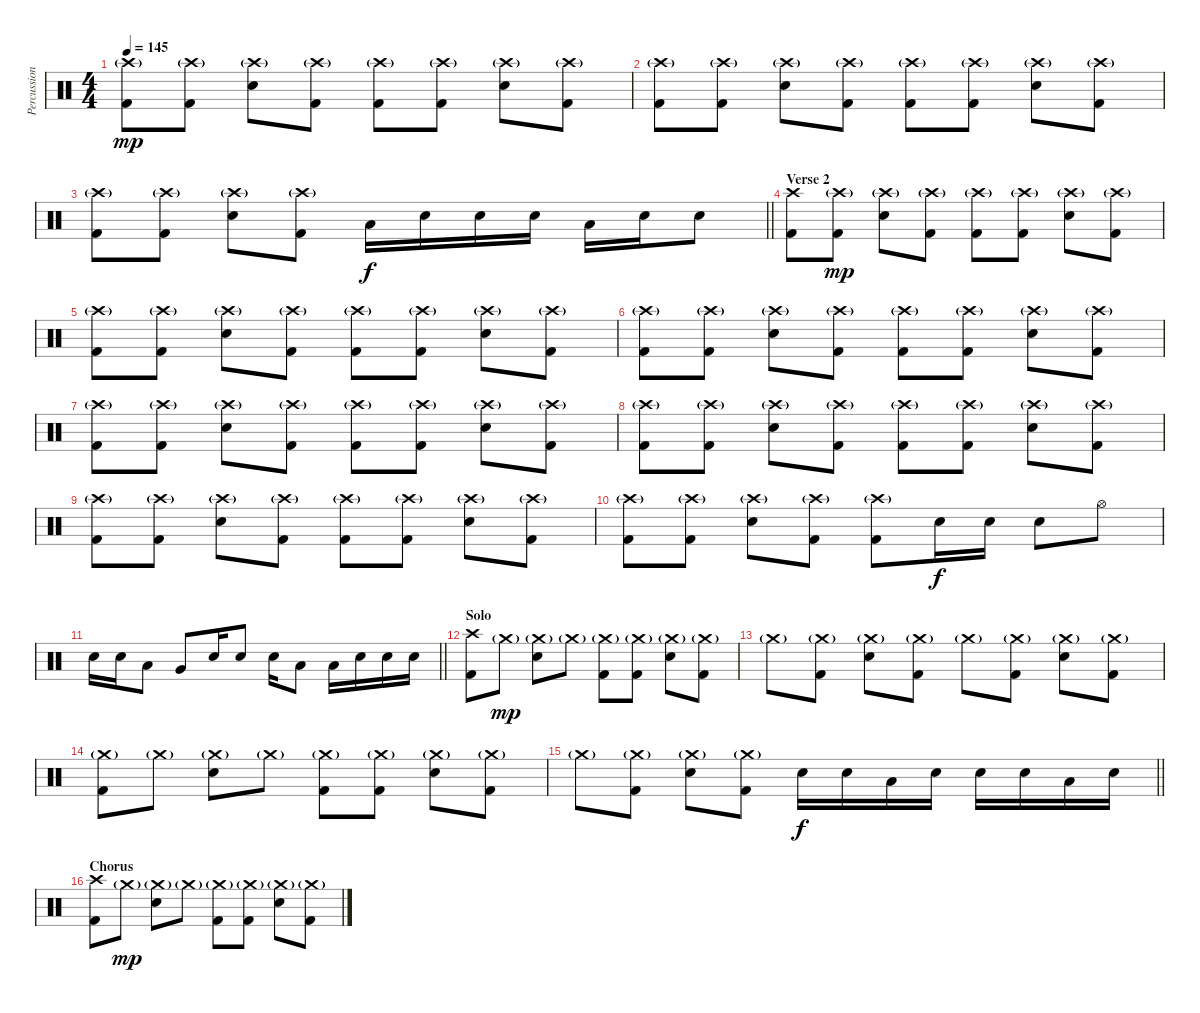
\track ("Percussion" "Percussion") {instrument percussion}
\staff {score}
\articulation defaults
\ts (4 4)
\tempo 145
\clef neutral
\ks c
("Crash high (hit)"{g} "Kick (hit) 2").8{dy mp} ("Crash high (hit)"{g} "Kick (hit) 2").8 ("Crash high (hit)"{g} "Snare (hit) 2").8 ("Crash high (hit)"{g} "Kick (hit) 2").8 ("Crash high (hit)"{g} "Kick (hit) 2").8 ("Crash high (hit)"{g} "Kick (hit) 2").8 ("Crash high (hit)"{g} "Snare (hit) 2").8 ("Crash high (hit)"{g} "Kick (hit) 2").8 |
("Crash high (hit)"{g} "Kick (hit) 2").8 ("Crash high (hit)"{g} "Kick (hit) 2").8 ("Crash high (hit)"{g} "Snare (hit) 2").8 ("Crash high (hit)"{g} "Kick (hit) 2").8 ("Crash high (hit)"{g} "Kick (hit) 2").8 ("Crash high (hit)"{g} "Kick (hit) 2").8 ("Crash high (hit)"{g} "Snare (hit) 2").8 ("Crash high (hit)"{g} "Kick (hit) 2").8 |
\barLineRight lightlight
("Crash high (hit)"{g} "Kick (hit) 2").8 ("Crash high (hit)"{g} "Kick (hit) 2").8 ("Crash high (hit)"{g} "Snare (hit) 2").8 ("Crash high (hit)"{g} "Kick (hit) 2").8 "Low Tom (hit)".16{dy f} "Snare (hit) 2".16 "Snare (hit) 2".16 "Snare (hit) 2".16 "Low Tom (hit)".16 "Snare (hit) 2".16 "Snare (hit) 2".8 |
\section ("" "Verse 2")
("Crash high (hit)" "Kick (hit) 2").8 ("Crash high (hit)"{g} "Kick (hit) 2").8{dy mp} ("Crash high (hit)"{g} "Snare (hit) 2").8 ("Crash high (hit)"{g} "Kick (hit) 2").8 ("Crash high (hit)"{g} "Kick (hit) 2").8 ("Crash high (hit)"{g} "Kick (hit) 2").8 ("Crash high (hit)"{g} "Snare (hit) 2").8 ("Crash high (hit)"{g} "Kick (hit) 2").8 |
("Crash high (hit)"{g} "Kick (hit) 2").8 ("Crash high (hit)"{g} "Kick (hit) 2").8 ("Crash high (hit)"{g} "Snare (hit) 2").8 ("Crash high (hit)"{g} "Kick (hit) 2").8 ("Crash high (hit)"{g} "Kick (hit) 2").8 ("Crash high (hit)"{g} "Kick (hit) 2").8 ("Crash high (hit)"{g} "Snare (hit) 2").8 ("Crash high (hit)"{g} "Kick (hit) 2").8 |
("Crash high (hit)"{g} "Kick (hit) 2").8 ("Crash high (hit)"{g} "Kick (hit) 2").8 ("Crash high (hit)"{g} "Snare (hit) 2").8 ("Crash high (hit)"{g} "Kick (hit) 2").8 ("Crash high (hit)"{g} "Kick (hit) 2").8 ("Crash high (hit)"{g} "Kick (hit) 2").8 ("Crash high (hit)"{g} "Snare (hit) 2").8 ("Crash high (hit)"{g} "Kick (hit) 2").8 |
("Crash high (hit)"{g} "Kick (hit) 2").8 ("Crash high (hit)"{g} "Kick (hit) 2").8 ("Crash high (hit)"{g} "Snare (hit) 2").8 ("Crash high (hit)"{g} "Kick (hit) 2").8 ("Crash high (hit)"{g} "Kick (hit) 2").8 ("Crash high (hit)"{g} "Kick (hit) 2").8 ("Crash high (hit)"{g} "Snare (hit) 2").8 ("Crash high (hit)"{g} "Kick (hit) 2").8 |
("Crash high (hit)"{g} "Kick (hit) 2").8 ("Crash high (hit)"{g} "Kick (hit) 2").8 ("Crash high (hit)"{g} "Snare (hit) 2").8 ("Crash high (hit)"{g} "Kick (hit) 2").8 ("Crash high (hit)"{g} "Kick (hit) 2").8 ("Crash high (hit)"{g} "Kick (hit) 2").8 ("Crash high (hit)"{g} "Snare (hit) 2").8 ("Crash high (hit)"{g} "Kick (hit) 2").8 |
("Crash high (hit)"{g} "Kick (hit) 2").8 ("Crash high (hit)"{g} "Kick (hit) 2").8 ("Crash high (hit)"{g} "Snare (hit) 2").8 ("Crash high (hit)"{g} "Kick (hit) 2").8 ("Crash high (hit)"{g} "Kick (hit) 2").8 ("Crash high (hit)"{g} "Kick (hit) 2").8 ("Crash high (hit)"{g} "Snare (hit) 2").8 ("Crash high (hit)"{g} "Kick (hit) 2").8 |
("Crash high (hit)"{g} "Kick (hit) 2").8 ("Crash high (hit)"{g} "Kick (hit) 2").8 ("Crash high (hit)"{g} "Snare (hit) 2").8 ("Crash high (hit)"{g} "Kick (hit) 2").8 ("Crash high (hit)"{g} "Kick (hit) 2").8 "Snare (hit) 2".16{dy f} "Snare (hit) 2".16 "Snare (hit) 2".8 "Hi-Hat (open)".8 |
\barLineRight lightlight "Snare (hit) 2".16 "Snare (hit) 2".16 "Low Tom (hit)".8 "Very Low Tom (hit)".8 "Snare (hit) 2".16 "Snare (hit) 2".8 "Snare (hit) 2".16 "Low Tom (hit)".8 "Low Tom (hit)".16 "Snare (hit) 2".16 "Snare (hit) 2".16 "Snare (hit) 2".16
|
\section ("" "Solo")
("Crash high (hit)" "Kick (hit) 2").8 "Crash medium (hit)"{g}.8{dy mp} ("Crash medium (hit)"{g} "Snare (hit) 2").8 "Crash medium (hit)"{g}.8 ("Crash medium (hit)"{g} "Kick (hit) 2").8 ("Crash medium (hit)"{g} "Kick (hit) 2").8 ("Crash medium (hit)"{g} "Snare (hit) 2").8 ("Crash medium (hit)"{g} "Kick (hit) 2").8 |
"Crash medium (hit)"{g}.8 ("Crash medium (hit)"{g} "Kick (hit) 2").8 ("Crash medium (hit)"{g} "Snare (hit) 2").8 ("Crash medium (hit)"{g} "Kick (hit) 2").8 "Crash medium (hit)"{g}.8 ("Crash medium (hit)"{g} "Kick (hit) 2").8 ("Crash medium (hit)"{g} "Snare (hit) 2").8 ("Crash medium (hit)"{g} "Kick (hit) 2").8 |
("Crash medium (hit)"{g} "Kick (hit) 2").8 "Crash medium (hit)"{g}.8 ("Crash medium (hit)"{g} "Snare (hit) 2").8 "Crash medium (hit)"{g}.8 ("Crash medium (hit)"{g} "Kick (hit) 2").8 ("Crash medium (hit)"{g} "Kick (hit) 2").8 ("Crash medium (hit)"{g} "Snare (hit) 2").8 ("Crash medium (hit)"{g} "Kick (hit) 2").8 |
\barLineRight lightlight "Crash medium (hit)"{g}.8
("Crash medium (hit)"{g} "Kick (hit) 2").8 ("Crash medium (hit)"{g} "Snare (hit) 2").8 ("Crash medium (hit)"{g} "Kick (hit) 2").8 "Snare (hit) 2".16{dy f} "Snare (hit) 2".16 "Low Tom (hit)".16 "Snare (hit) 2".16 "Snare (hit) 2".16 "Snare (hit) 2".16 "Low Tom (hit)".16 "Snare (hit) 2".16 |
\section ("" "Chorus")
("Crash high (hit)" "Kick (hit) 2").8 "Crash medium (hit)"{g}.8{dy mp} ("Crash medium (hit)"{g} "Snare (hit) 2").8 "Crash medium (hit)"{g}.8 ("Crash medium (hit)"{g} "Kick (hit) 2").8 ("Crash medium (hit)"{g} "Kick (hit) 2").8 ("Crash medium (hit)"{g} "Snare (hit) 2").8 ("Crash medium (hit)"{g} "Kick (hit) 2").8
